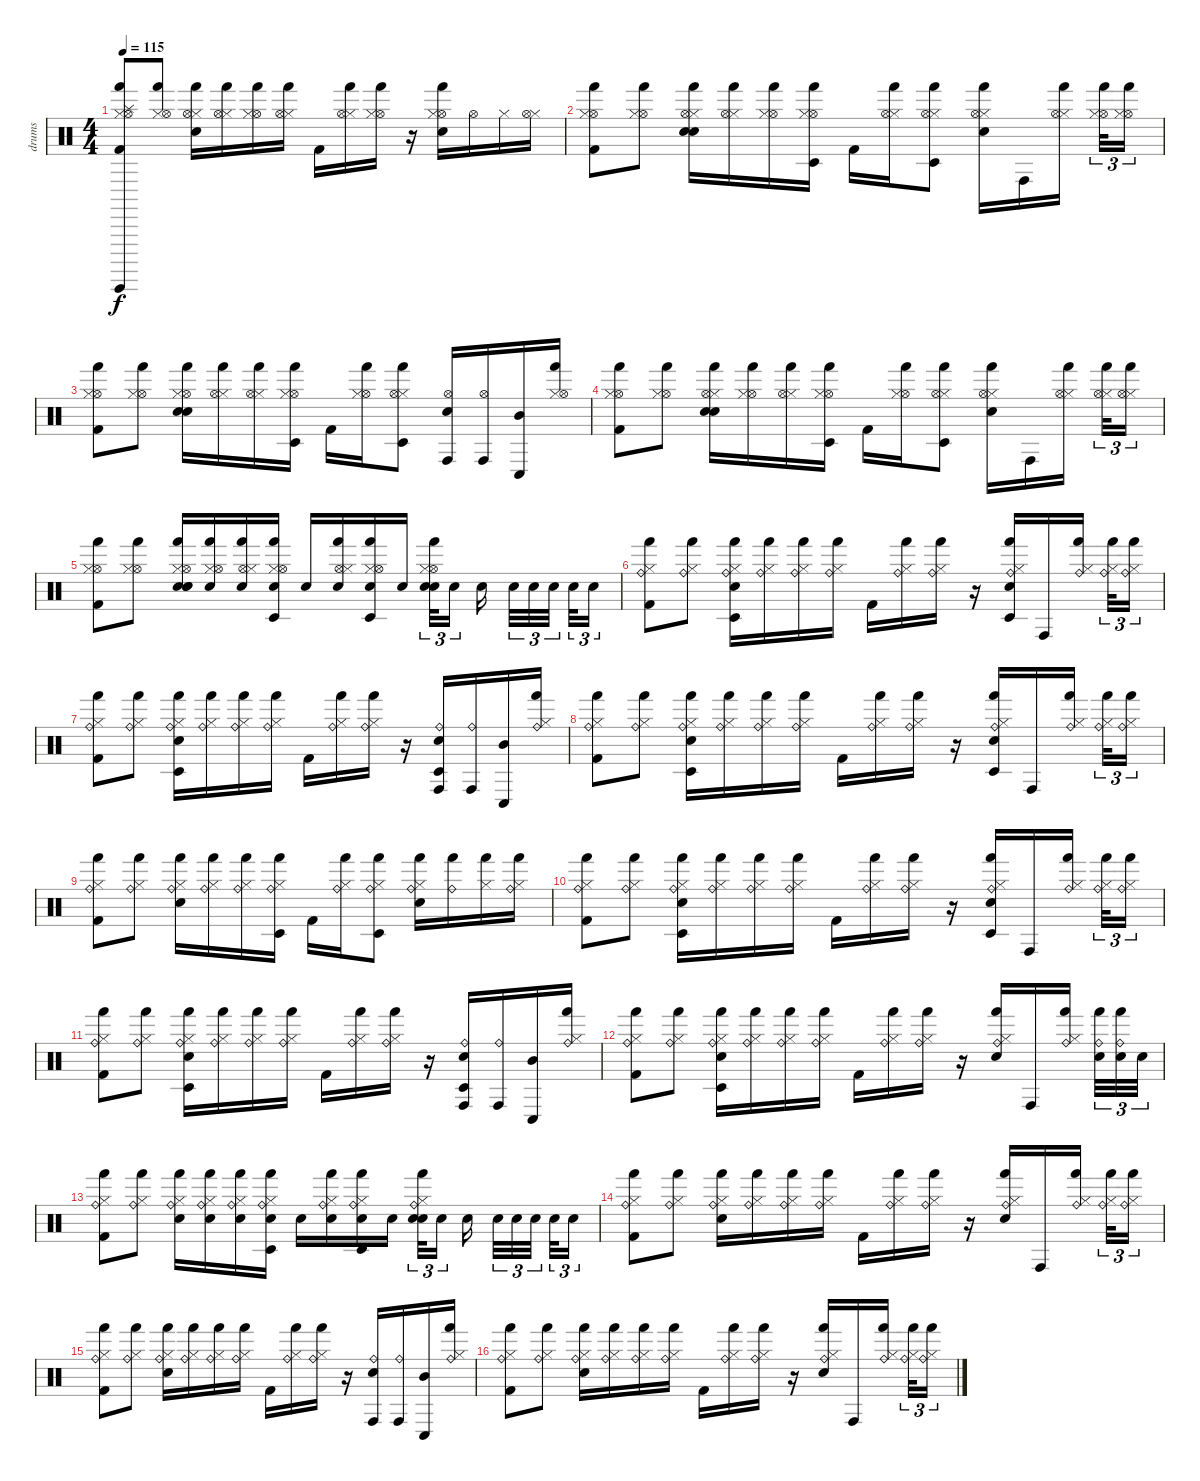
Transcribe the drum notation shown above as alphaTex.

\track ("drums" "drums") {instrument percussion}
\staff {score}
\articulation defaults
\ts (4 4)
\tempo 115
\clef neutral
\ks c
("Kick (hit) 2" "Hi-Hat (closed)" "Hi-Hat (open)" "Splash (hit)" "Hand (hit)" "Guiro (hit)").8{dy f} ("Hi-Hat (closed)" "Hi-Hat (open)" "Hand (hit)").8 ("Hi-Hat (closed)" "Hand Clap (hit)" "Hand (hit)" "Hi-Hat (open)").16 ("Hi-Hat (closed)" "Hand (hit)" "Hi-Hat (open)").16 ("Hi-Hat (open)" "Hand (hit)" "Hi-Hat (closed)").16 ("Hi-Hat (closed)" "Hand (hit)" "Hi-Hat (open)").16 "Kick (hit) 2".16 ("Hand (hit)" "Hi-Hat (closed)" "Hi-Hat (open)").16 ("Hand (hit)" "Hi-Hat (open)" "Hi-Hat (closed)").16 r.16 ("Hand (hit)" "Hi-Hat (open)" "Hand Clap (hit)" "Hi-Hat (closed)").16 "Hi-Hat (open)".16 "Hi-Hat (closed)".16 ("Hi-Hat (closed)" "Hi-Hat (open)").16 |
("Hi-Hat (open)" "Kick (hit) 2" "Hi-Hat (closed)" "Hand (hit)").8 ("Hi-Hat (open)" "Hand (hit)" "Hi-Hat (closed)").8 ("Electric Snare (hit)" "Hand (hit)" "Hi-Hat (closed)" "Hi-Hat (open)" "Hand Clap (hit)").16 ("Hi-Hat (closed)" "Hi-Hat (open)" "Hand (hit)").16 ("Hi-Hat (open)" "Hi-Hat (closed)" "Hand (hit)").16 ("Hand (hit)" "Hi-Hat (open)" "Timbale low (hit)" "Hi-Hat (closed)").16 "Kick (hit) 2".16 ("Hi-Hat (closed)" "Hi-Hat (open)" "Hand (hit)").16 ("Hand (hit)" "Hi-Hat (closed)" "Timbale low (hit)" "Hi-Hat (open)").8 ("Hand (hit)" "Hand Clap (hit)" "Hi-Hat (closed)" "Hi-Hat (open)").16 "Conga high (hit)".16 ("Hi-Hat (closed)" "Hi-Hat (open)" "Hand (hit)").16 ("Hi-Hat (open)" "Hi-Hat (closed)" "Hand (hit)").32{tu (3 2)} ("Hi-Hat (open)" "Hi-Hat (closed)" "Hand (hit)").16{tu (3 2)} |
("Hi-Hat (open)" "Hand (hit)" "Kick (hit) 2" "Hi-Hat (closed)").8 ("Hi-Hat (open)" "Hand (hit)" "Hi-Hat (closed)").8 ("Snare (hit) 2" "Hand (hit)" "Hi-Hat (open)" "Hi-Hat (closed)" "Hand Clap (hit)").16 ("Hi-Hat (closed)" "Hand (hit)" "Hi-Hat (open)").16 ("Hand (hit)" "Hi-Hat (closed)" "Hi-Hat (open)").16 ("Hand (hit)" "Hi-Hat (open)" "Hi-Hat (closed)" "Timbale low (hit)").16 "Kick (hit) 2".16 ("Hand (hit)" "Hi-Hat (open)" "Hi-Hat (closed)").16 ("Hi-Hat (closed)" "Hand (hit)" "Hi-Hat (open)" "Timbale low (hit)").8 ("Hand Clap (hit)" "Hi-Hat (open)" "Conga high (hit)").16 ("Hi-Hat (open)" "Conga high (hit)").16 ("Mid Tom (hit)" "Conga low (hit)").16 ("Hi-Hat (closed)" "Hi-Hat (open)" "Hand (hit)").16 |
("Hand (hit)" "Hi-Hat (open)" "Kick (hit) 2" "Hi-Hat (closed)").8 ("Hi-Hat (open)" "Hi-Hat (closed)" "Hand (hit)").8 ("Hi-Hat (closed)" "Hand Clap (hit)" "Hi-Hat (open)" "Snare (hit) 2" "Hand (hit)").16 ("Hand (hit)" "Hi-Hat (open)" "Hi-Hat (closed)").16 ("Hi-Hat (closed)" "Hand (hit)" "Hi-Hat (open)").16 ("Hi-Hat (open)" "Hi-Hat (closed)" "Hand (hit)" "Timbale low (hit)").16 "Kick (hit) 2".16 ("Hi-Hat (open)" "Hand (hit)" "Hi-Hat (closed)").16 ("Hand (hit)" "Hi-Hat (closed)" "Timbale low (hit)" "Hi-Hat (open)").8 ("Hand (hit)" "Hand Clap (hit)" "Hi-Hat (closed)" "Hi-Hat (open)").16 "Conga high (hit)".16 ("Hand (hit)" "Hi-Hat (closed)" "Hi-Hat (open)").16 ("Hi-Hat (closed)" "Hand (hit)" "Hi-Hat (open)").32{tu (3 2)} ("Hi-Hat (closed)" "Hi-Hat (open)" "Hand (hit)").16{tu (3 2)} |
("Hi-Hat (open)" "Kick (hit) 2" "Hand (hit)" "Hi-Hat (closed)").8 ("Hi-Hat (open)" "Hi-Hat (closed)" "Hand (hit)").8 ("Electric Snare (hit)" "Hi-Hat (closed)" "Electric Snare (hit)" "Hand Clap (hit)" "Hand (hit)" "Hi-Hat (open)").16 ("Hand (hit)" "Hi-Hat (closed)" "Hi-Hat (open)" "Electric Snare (hit)").16 ("Hi-Hat (open)" "Electric Snare (hit)" "Hand (hit)" "Hi-Hat (closed)").16 ("Hi-Hat (closed)" "Hand (hit)" "Hi-Hat (open)" "Timbale low (hit)" "Electric Snare (hit)").16 "Electric Snare (hit)".16 ("Hand (hit)" "Electric Snare (hit)" "Hi-Hat (open)" "Hi-Hat (closed)").16 ("Electric Snare (hit)" "Hand (hit)" "Hi-Hat (closed)" "Hi-Hat (open)" "Timbale low (hit)").16 "Electric Snare (hit)".16 ("Electric Snare (hit)" "Hand Clap (hit)" "Hi-Hat (open)" "Hi-Hat (closed)" "Hand (hit)").32{tu (3 2)} "Electric Snare (hit)".16{tu (3 2)} "Electric Snare (hit)".16 "Electric Snare (hit)".32{tu (3 2)} "Electric Snare (hit)".32{tu (3 2)} "Electric Snare (hit)".32{tu (3 2)} "Electric Snare (hit)".32{tu (3 2)} "Electric Snare (hit)".16{tu (3 2)} |
("Ride (bell)" "Kick (hit) 2" "Hand (hit)" "Hi-Hat (closed)").8 ("Ride (bell)" "Hi-Hat (closed)" "Hand (hit)").8 ("Hand Clap (hit)" "Hi-Hat (closed)" "Ride (bell)" "Hand (hit)" "Timbale low (hit)").16 ("Hi-Hat (closed)" "Hand (hit)" "Ride (bell)").16 ("Ride (bell)" "Hand (hit)" "Hi-Hat (closed)").16 ("Hand (hit)" "Ride (bell)" "Hi-Hat (closed)").16 "Kick (hit) 2".16 ("Ride (bell)" "Hand (hit)" "Hi-Hat (closed)").16 ("Hand (hit)" "Hi-Hat (closed)" "Ride (bell)").16 r.16 ("Timbale low (hit)" "Hand (hit)" "Ride (bell)" "Hand Clap (hit)" "Hi-Hat (closed)").16 "Conga high (hit)".16 ("Ride (bell)" "Hi-Hat (closed)" "Hand (hit)").16 ("Hand (hit)" "Ride (bell)" "Hi-Hat (closed)").32{tu (3 2)} ("Hi-Hat (closed)" "Hand (hit)" "Ride (bell)").16{tu (3 2)} |
("Hi-Hat (closed)" "Hand (hit)" "Kick (hit) 2" "Ride (bell)").8 ("Hi-Hat (closed)" "Hand (hit)" "Ride (bell)").8 ("Timbale low (hit)" "Hand Clap (hit)" "Hi-Hat (closed)" "Ride (bell)" "Hand (hit)").16 ("Ride (bell)" "Hand (hit)" "Hi-Hat (closed)").16 ("Ride (bell)" "Hand (hit)" "Hi-Hat (closed)").16 ("Ride (bell)" "Hand (hit)" "Hi-Hat (closed)").16 "Kick (hit) 2".16 ("Hand (hit)" "Hi-Hat (closed)" "Ride (bell)").16 ("Ride (bell)" "Hi-Hat (closed)" "Hand (hit)").16 r.16 ("Ride (bell)" "Timbale low (hit)" "Conga high (hit)" "Hand Clap (hit)").16 ("Conga high (hit)" "Ride (bell)").16 ("Mid Tom (hit)" "Conga low (hit)").16 ("Ride (bell)" "Hand (hit)" "Hi-Hat (closed)").16 |
("Ride (bell)" "Hand (hit)" "Hi-Hat (closed)" "Kick (hit) 2").8 ("Ride (bell)" "Hand (hit)" "Hi-Hat (closed)").8 ("Hi-Hat (closed)" "Timbale low (hit)" "Hand (hit)" "Hand Clap (hit)" "Ride (bell)").16 ("Ride (bell)" "Hand (hit)" "Hi-Hat (closed)").16 ("Hi-Hat (closed)" "Hand (hit)" "Ride (bell)").16 ("Ride (bell)" "Hand (hit)" "Hi-Hat (closed)").16 "Kick (hit) 2".16 ("Ride (bell)" "Hi-Hat (closed)" "Hand (hit)").16 ("Ride (bell)" "Hi-Hat (closed)" "Hand (hit)").16 r.16 ("Hand Clap (hit)" "Hi-Hat (closed)" "Timbale low (hit)" "Hand (hit)" "Ride (bell)").16 "Conga high (hit)".16 ("Ride (bell)" "Hand (hit)" "Hi-Hat (closed)").16 ("Ride (bell)" "Hand (hit)" "Hi-Hat (closed)").32{tu (3 2)} ("Hand (hit)" "Ride (bell)" "Hi-Hat (closed)").16{tu (3 2)} |
("Ride (bell)" "Hand (hit)" "Kick (hit) 2" "Hi-Hat (closed)").8 ("Ride (bell)" "Hi-Hat (closed)" "Hand (hit)").8 ("Hi-Hat (closed)" "Ride (bell)" "Hand (hit)" "Hand Clap (hit)").16 ("Hand (hit)" "Hi-Hat (closed)" "Ride (bell)").16 ("Hand (hit)" "Ride (bell)" "Hi-Hat (closed)").16 ("Ride (bell)" "Hi-Hat (closed)" "Timbale low (hit)" "Hand (hit)").16 "Kick (hit) 2".16 ("Hand (hit)" "Hi-Hat (closed)" "Ride (bell)").16 ("Hi-Hat (closed)" "Hand (hit)" "Timbale low (hit)" "Ride (bell)").8 ("Ride (bell)" "Hand Clap (hit)" "Hi-Hat (closed)" "Hand (hit)").16 ("Hand (hit)" "Ride (bell)").16 ("Hand (hit)" "Hi-Hat (closed)").16 ("Hand (hit)" "Ride (bell)" "Hi-Hat (closed)").16 |
("Hi-Hat (closed)" "Ride (bell)" "Kick (hit) 2" "Hand (hit)").8 ("Ride (bell)" "Hand (hit)" "Hi-Hat (closed)").8 ("Ride (bell)" "Hand Clap (hit)" "Hand (hit)" "Hi-Hat (closed)" "Timbale low (hit)").16 ("Hi-Hat (closed)" "Hand (hit)" "Ride (bell)").16 ("Ride (bell)" "Hi-Hat (closed)" "Hand (hit)").16 ("Hi-Hat (closed)" "Ride (bell)" "Hand (hit)").16 "Kick (hit) 2".16 ("Hand (hit)" "Hi-Hat (closed)" "Ride (bell)").16 ("Ride (bell)" "Hi-Hat (closed)" "Hand (hit)").16 r.16 ("Timbale low (hit)" "Ride (bell)" "Hand Clap (hit)" "Hi-Hat (closed)" "Hand (hit)").16 "Conga high (hit)".16 ("Hi-Hat (closed)" "Hand (hit)" "Ride (bell)").16 ("Hi-Hat (closed)" "Hand (hit)" "Ride (bell)").32{tu (3 2)} ("Hand (hit)" "Ride (bell)" "Hi-Hat (closed)").16{tu (3 2)} |
("Ride (bell)" "Hi-Hat (closed)" "Kick (hit) 2" "Hand (hit)").8 ("Hi-Hat (closed)" "Ride (bell)" "Hand (hit)").8 ("Hi-Hat (closed)" "Ride (bell)" "Hand Clap (hit)" "Hand (hit)" "Timbale low (hit)").16 ("Hi-Hat (closed)" "Hand (hit)" "Ride (bell)").16 ("Hand (hit)" "Ride (bell)" "Hi-Hat (closed)").16 ("Hi-Hat (closed)" "Ride (bell)" "Hand (hit)").16 "Kick (hit) 2".16 ("Hand (hit)" "Ride (bell)" "Hi-Hat (closed)").16 ("Hand (hit)" "Ride (bell)" "Hi-Hat (closed)").16 r.16 ("Hand Clap (hit)" "Ride (bell)" "Timbale low (hit)" "Conga high (hit)").16 ("Ride (bell)" "Conga high (hit)").16 ("Mid Tom (hit)" "Conga low (hit)").16 ("Ride (bell)" "Hi-Hat (closed)" "Hand (hit)").16 |
("Hi-Hat (closed)" "Ride (bell)" "Hand (hit)" "Kick (hit) 2").8 ("Hi-Hat (closed)" "Hand (hit)" "Ride (bell)").8 ("Hand Clap (hit)" "Hand (hit)" "Timbale low (hit)" "Hi-Hat (closed)" "Ride (bell)").16 ("Hi-Hat (closed)" "Hand (hit)" "Ride (bell)").16 ("Ride (bell)" "Hi-Hat (closed)" "Hand (hit)").16 ("Hand (hit)" "Ride (bell)" "Hi-Hat (closed)").16 "Kick (hit) 2".16 ("Hand (hit)" "Hi-Hat (closed)" "Ride (bell)").16 ("Ride (bell)" "Hi-Hat (closed)" "Hand (hit)").16 r.16 ("Hand (hit)" "Hi-Hat (closed)" "Ride (bell)" "Hand Clap (hit)").16 "Conga high (hit)".16 ("Hand (hit)" "Hi-Hat (closed)" "Ride (bell)").16 ("Hand (hit)" "Electric Snare (hit)" "Ride (bell)").32{tu (3 2)} ("Hand (hit)" "Ride (bell)" "Electric Snare (hit)").32{tu (3 2)} "Electric Snare (hit)".32{tu (3 2)} |
("Kick (hit) 2" "Hand (hit)" "Ride (bell)" "Hi-Hat (closed)").8 ("Hand (hit)" "Hi-Hat (closed)" "Ride (bell)").8 ("Hand (hit)" "Ride (bell)" "Hi-Hat (closed)" "Electric Snare (hit)").16 ("Electric Snare (hit)" "Hand (hit)" "Ride (bell)" "Hi-Hat (closed)").16 ("Hi-Hat (closed)" "Ride (bell)" "Electric Snare (hit)" "Hand (hit)").16 ("Ride (bell)" "Electric Snare (hit)" "Hand (hit)" "Hi-Hat (closed)" "Timbale low (hit)").16 "Electric Snare (hit)".16 ("Hand (hit)" "Electric Snare (hit)" "Hi-Hat (closed)" "Ride (bell)").16 ("Hi-Hat (closed)" "Electric Snare (hit)" "Ride (bell)" "Timbale low (hit)" "Hand (hit)").16 "Electric Snare (hit)".16 ("Hand Clap (hit)" "Hand (hit)" "Hi-Hat (closed)" "Ride (bell)" "Electric Snare (hit)").32{tu (3 2)} "Electric Snare (hit)".16{tu (3 2)} "Electric Snare (hit)".16 "Electric Snare (hit)".32{tu (3 2)} "Electric Snare (hit)".32{tu (3 2)} "Electric Snare (hit)".32{tu (3 2)} "Electric Snare (hit)".32{tu (3 2)} "Electric Snare (hit)".16{tu (3 2)} |
("Kick (hit) 2" "Hand (hit)" "Hi-Hat (closed)" "Ride (bell)").8 ("Hi-Hat (closed)" "Hand (hit)" "Ride (bell)").8 ("Hi-Hat (closed)" "Hand Clap (hit)" "Hand (hit)" "Ride (bell)").16 ("Hi-Hat (closed)" "Ride (bell)" "Hand (hit)").16 ("Hi-Hat (closed)" "Hand (hit)" "Ride (bell)").16 ("Ride (bell)" "Hand (hit)" "Hi-Hat (closed)").16 "Kick (hit) 2".16 ("Hand (hit)" "Ride (bell)" "Hi-Hat (closed)").16 ("Hand (hit)" "Ride (bell)" "Hi-Hat (closed)").16 r.16 ("Hi-Hat (closed)" "Hand (hit)" "Ride (bell)" "Hand Clap (hit)").16 "Conga high (hit)".16 ("Hand (hit)" "Ride (bell)" "Hi-Hat (closed)").16 ("Hi-Hat (closed)" "Hand (hit)" "Ride (bell)").32{tu (3 2)} ("Hi-Hat (closed)" "Ride (bell)" "Hand (hit)").16{tu (3 2)} |
("Hand (hit)" "Kick (hit) 2" "Ride (bell)" "Hi-Hat (closed)").8 ("Ride (bell)" "Hand (hit)" "Hi-Hat (closed)").8 ("Hand Clap (hit)" "Hand (hit)" "Ride (bell)" "Hi-Hat (closed)").16 ("Ride (bell)" "Hi-Hat (closed)" "Hand (hit)").16 ("Ride (bell)" "Hand (hit)" "Hi-Hat (closed)").16 ("Hand (hit)" "Hi-Hat (closed)" "Ride (bell)").16 "Kick (hit) 2".16 ("Hi-Hat (closed)" "Hand (hit)" "Ride (bell)").16 ("Ride (bell)" "Hi-Hat (closed)" "Hand (hit)").16 r.16 ("Ride (bell)" "Conga high (hit)" "Hand Clap (hit)").16 ("Ride (bell)" "Conga high (hit)").16 ("Mid Tom (hit)" "Conga low (hit)").16 ("Hand (hit)" "Hi-Hat (closed)" "Ride (bell)").16 |
("Kick (hit) 2" "Ride (bell)" "Hi-Hat (closed)" "Hand (hit)").8 ("Hand (hit)" "Ride (bell)" "Hi-Hat (closed)").8 ("Hi-Hat (closed)" "Hand (hit)" "Ride (bell)" "Hand Clap (hit)").16 ("Ride (bell)" "Hi-Hat (closed)" "Hand (hit)").16 ("Hi-Hat (closed)" "Hand (hit)" "Ride (bell)").16 ("Ride (bell)" "Hi-Hat (closed)" "Hand (hit)").16 "Kick (hit) 2".16 ("Hi-Hat (closed)" "Ride (bell)" "Hand (hit)").16 ("Hand (hit)" "Hi-Hat (closed)" "Ride (bell)").16 r.16 ("Hand (hit)" "Hi-Hat (closed)" "Ride (bell)" "Hand Clap (hit)").16 "Conga high (hit)".16 ("Hi-Hat (closed)" "Ride (bell)" "Hand (hit)").16 ("Hi-Hat (closed)" "Hand (hit)" "Ride (bell)").32{tu (3 2)} ("Hi-Hat (closed)" "Hand (hit)" "Ride (bell)").16{tu (3 2)}
